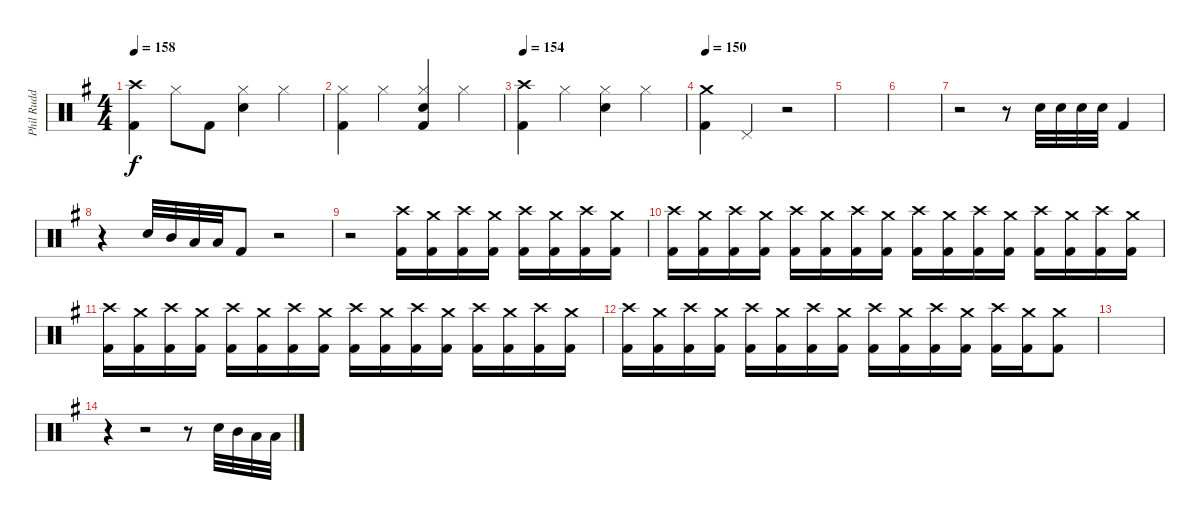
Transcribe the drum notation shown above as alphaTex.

\track ("Phil Rudd" "Phil Rudd") {instrument percussion}
\staff {score}
\articulation defaults
\ts (4 4)
\tempo 158
\clef neutral
\ks g
("Kick (hit) 2" "Crash high (hit)").4{dy f} "Hi-Hat (closed)".8 "Kick (hit) 2".8 ("Snare (hit) 2" "Hi-Hat (closed)").4 "Hi-Hat (closed)".4 |
("Hi-Hat (closed)" "Kick (hit) 2").4 "Hi-Hat (closed)".4 ("Kick (hit) 2" "Snare (hit) 2" "Hi-Hat (closed)").4 "Hi-Hat (closed)".4 |
\tempo 154
("Crash high (hit)" "Kick (hit) 2").4 "Hi-Hat (closed)".4 ("Snare (hit) 2" "Hi-Hat (closed)").4 "Hi-Hat (closed)".4 |
\tempo 150
("Crash medium (hit)" "Kick (hit) 2").4 "Pedal Hi-Hat (hit)".4 r.2 |
|
|
r.2 r.8 "Snare (hit) 2".32 "Snare (hit) 2".32 "Snare (hit) 2".32 "Snare (hit) 2".32 "Kick (hit) 2".4 |
r.4 "Snare (hit) 2".32 "Mid Tom (hit)".32 "Low Tom (hit)".32 "Low Floor Tom (hit)".32 "Kick (hit) 2".8 r.2 |
r.2 ("Crash high (hit)" "Kick (hit) 2").16 ("Crash medium (hit)" "Kick (hit) 2").16 ("Crash high (hit)" "Kick (hit) 2").16 ("Crash medium (hit)" "Kick (hit) 2").16 ("Crash high (hit)" "Kick (hit) 2").16 ("Crash medium (hit)" "Kick (hit) 2").16 ("Crash high (hit)" "Kick (hit) 2").16 ("Crash medium (hit)" "Kick (hit) 2").16 |
("Crash high (hit)" "Kick (hit) 2").16 ("Crash medium (hit)" "Kick (hit) 2").16 ("Crash high (hit)" "Kick (hit) 2").16 ("Crash medium (hit)" "Kick (hit) 2").16 ("Crash high (hit)" "Kick (hit) 2").16 ("Crash medium (hit)" "Kick (hit) 2").16 ("Crash high (hit)" "Kick (hit) 2").16 ("Crash medium (hit)" "Kick (hit) 2").16 ("Crash high (hit)" "Kick (hit) 2").16 ("Crash medium (hit)" "Kick (hit) 2").16 ("Crash high (hit)" "Kick (hit) 2").16 ("Crash medium (hit)" "Kick (hit) 2").16 ("Crash high (hit)" "Kick (hit) 2").16 ("Crash medium (hit)" "Kick (hit) 2").16 ("Crash high (hit)" "Kick (hit) 2").16 ("Crash medium (hit)" "Kick (hit) 2").16 |
("Crash high (hit)" "Kick (hit) 2").16 ("Crash medium (hit)" "Kick (hit) 2").16 ("Crash high (hit)" "Kick (hit) 2").16 ("Crash medium (hit)" "Kick (hit) 2").16 ("Crash high (hit)" "Kick (hit) 2").16 ("Crash medium (hit)" "Kick (hit) 2").16 ("Crash high (hit)" "Kick (hit) 2").16 ("Crash medium (hit)" "Kick (hit) 2").16 ("Crash high (hit)" "Kick (hit) 2").16 ("Crash medium (hit)" "Kick (hit) 2").16 ("Crash high (hit)" "Kick (hit) 2").16 ("Crash medium (hit)" "Kick (hit) 2").16 ("Crash high (hit)" "Kick (hit) 2").16 ("Crash medium (hit)" "Kick (hit) 2").16 ("Crash high (hit)" "Kick (hit) 2").16 ("Crash medium (hit)" "Kick (hit) 2").16 |
("Crash high (hit)" "Kick (hit) 2").16 ("Crash medium (hit)" "Kick (hit) 2").16 ("Crash high (hit)" "Kick (hit) 2").16 ("Crash medium (hit)" "Kick (hit) 2").16 ("Crash high (hit)" "Kick (hit) 2").16 ("Crash medium (hit)" "Kick (hit) 2").16 ("Crash high (hit)" "Kick (hit) 2").16 ("Crash medium (hit)" "Kick (hit) 2").16 ("Crash high (hit)" "Kick (hit) 2").16 ("Crash medium (hit)" "Kick (hit) 2").16 ("Crash high (hit)" "Kick (hit) 2").16 ("Crash medium (hit)" "Kick (hit) 2").16 ("Crash high (hit)" "Kick (hit) 2").16 ("Crash medium (hit)" "Kick (hit) 2").16 ("Crash medium (hit)" "Kick (hit) 2").8 |
|
r.4 r.2 r.8 "Snare (hit) 2".32 "Mid Tom (hit)".32 "Low Tom (hit)".32 "Low Floor Tom (hit)".32
